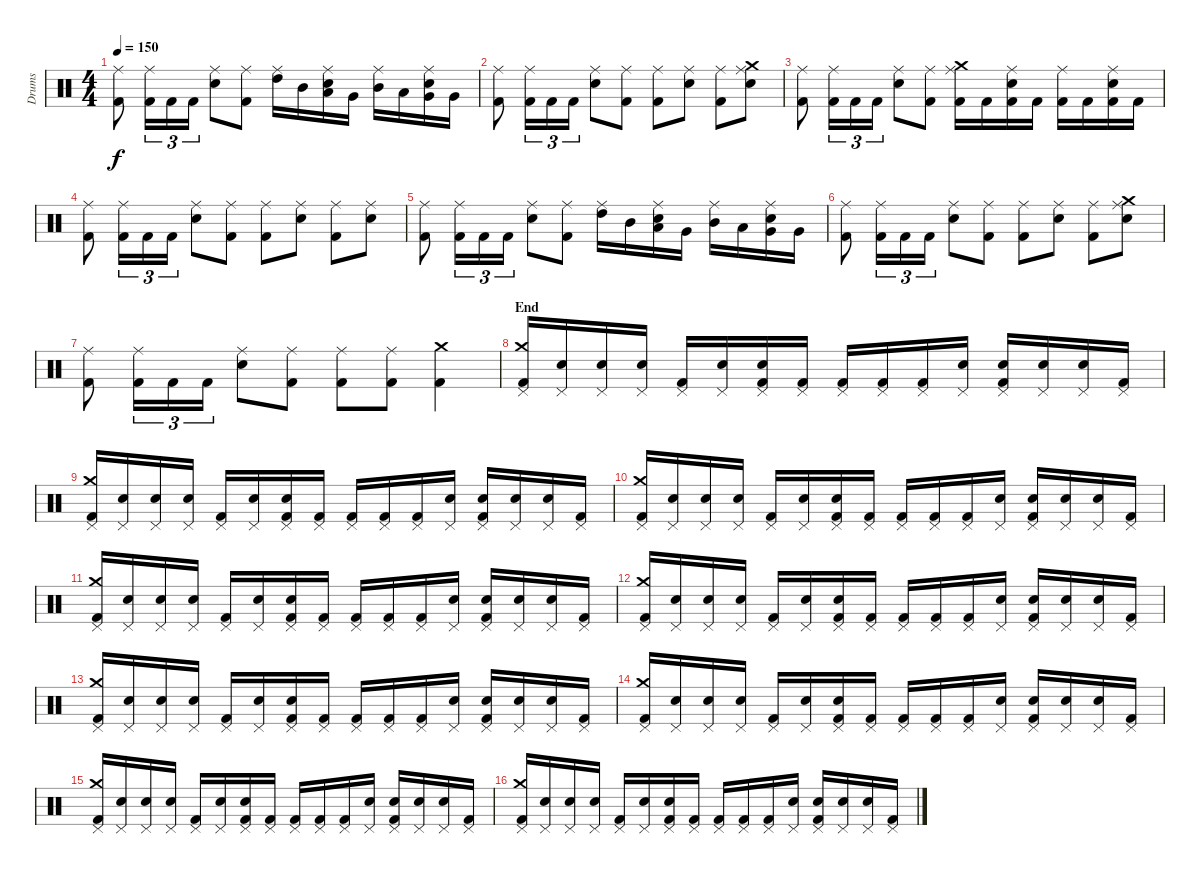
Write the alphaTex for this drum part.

\track ("Drums" "Drums") {instrument percussion}
\staff {score}
\articulation defaults
\ts (4 4)
\tempo 150
\clef neutral
\ks c
("Kick (hit) 2" "Ride (middle)").8{dy f} ("Kick (hit) 2" "Ride (middle)").16{tu (3 2)} "Kick (hit) 2".16{tu (3 2)} "Kick (hit) 2".16{tu (3 2)} ("Snare (hit) 2" "Ride (middle)").8 ("Kick (hit) 2" "Ride (middle)").8 ("High Tom (hit)" "Ride (middle)").16 "Mid Tom (hit)".16 ("Low Tom (hit)" "Snare (hit) 2" "Ride (middle)").16 "Very Low Tom (hit)".16 ("Mid Tom (hit)" "Ride (middle)").16 "Low Tom (hit)".16 ("Very Low Tom (hit)" "Snare (hit) 2" "Ride (middle)").16 "Very Low Tom (hit)".16 |
("Kick (hit) 2" "Ride (middle)").8 ("Kick (hit) 2" "Ride (middle)").16{tu (3 2)} "Kick (hit) 2".16{tu (3 2)} "Kick (hit) 2".16{tu (3 2)} ("Snare (hit) 2" "Ride (middle)").8 ("Kick (hit) 2" "Ride (middle)").8 ("Kick (hit) 2" "Ride (middle)").8 ("Snare (hit) 2" "Ride (middle)").8 ("Kick (hit) 2" "Ride (middle)").8 ("Crash medium (hit)" "Snare (hit) 2" "Ride (middle)").8 |
("Kick (hit) 2" "Ride (middle)").8 ("Kick (hit) 2" "Ride (middle)").16{tu (3 2)} "Kick (hit) 2".16{tu (3 2)} "Kick (hit) 2".16{tu (3 2)} ("Snare (hit) 2" "Ride (middle)").8 ("Kick (hit) 2" "Ride (middle)").8 ("Kick (hit) 2" "Crash medium (hit)" "Ride (middle)").16 "Kick (hit) 2".16 ("Kick (hit) 2" "Snare (hit) 2" "Ride (middle)").16 "Kick (hit) 2".16 ("Kick (hit) 2" "Ride (middle)").16 "Kick (hit) 2".16 ("Kick (hit) 2" "Snare (hit) 2" "Ride (middle)").16 "Kick (hit) 2".16 |
("Kick (hit) 2" "Ride (middle)").8 ("Kick (hit) 2" "Ride (middle)").16{tu (3 2)} "Kick (hit) 2".16{tu (3 2)} "Kick (hit) 2".16{tu (3 2)} ("Snare (hit) 2" "Ride (middle)").8 ("Kick (hit) 2" "Ride (middle)").8 ("Kick (hit) 2" "Ride (middle)").8 ("Snare (hit) 2" "Ride (middle)").8 ("Kick (hit) 2" "Ride (middle)").8 ("Snare (hit) 2" "Ride (middle)").8 |
("Kick (hit) 2" "Ride (middle)").8 ("Kick (hit) 2" "Ride (middle)").16{tu (3 2)} "Kick (hit) 2".16{tu (3 2)} "Kick (hit) 2".16{tu (3 2)} ("Snare (hit) 2" "Ride (middle)").8 ("Kick (hit) 2" "Ride (middle)").8 ("High Tom (hit)" "Ride (middle)").16 "Mid Tom (hit)".16 ("Low Tom (hit)" "Snare (hit) 2" "Ride (middle)").16 "Very Low Tom (hit)".16 ("Mid Tom (hit)" "Ride (middle)").16 "Low Tom (hit)".16 ("Very Low Tom (hit)" "Snare (hit) 2" "Ride (middle)").16 "Very Low Tom (hit)".16 |
("Kick (hit) 2" "Ride (middle)").8 ("Kick (hit) 2" "Ride (middle)").16{tu (3 2)} "Kick (hit) 2".16{tu (3 2)} "Kick (hit) 2".16{tu (3 2)} ("Snare (hit) 2" "Ride (middle)").8 ("Kick (hit) 2" "Ride (middle)").8 ("Kick (hit) 2" "Ride (middle)").8 ("Snare (hit) 2" "Ride (middle)").8 ("Kick (hit) 2" "Ride (middle)").8 ("Crash medium (hit)" "Snare (hit) 2" "Ride (middle)").8 |
("Kick (hit) 2" "Ride (middle)").8 ("Kick (hit) 2" "Ride (middle)").16{tu (3 2)} "Kick (hit) 2".16{tu (3 2)} "Kick (hit) 2".16{tu (3 2)} ("Snare (hit) 2" "Ride (middle)").8 ("Kick (hit) 2" "Ride (middle)").8 ("Kick (hit) 2" "Ride (middle)").8 ("Kick (hit) 2" "Ride (middle)").8 ("Kick (hit) 2" "Crash medium (hit)").4 |
\section ("" "End")
("Kick (hit) 2" "Pedal Hi-Hat (hit)" "Crash medium (hit)").16 ("Snare (hit)" "Pedal Hi-Hat (hit)").16 ("Snare (hit)" "Pedal Hi-Hat (hit)").16 ("Snare (hit)" "Pedal Hi-Hat (hit)").16 ("Kick (hit) 2" "Pedal Hi-Hat (hit)").16 ("Snare (hit)" "Pedal Hi-Hat (hit)").16 ("Kick (hit) 2" "Pedal Hi-Hat (hit)" "Snare (hit) 2").16 ("Kick (hit) 2" "Pedal Hi-Hat (hit)").16 ("Kick (hit) 2" "Pedal Hi-Hat (hit)").16 ("Kick (hit) 2" "Pedal Hi-Hat (hit)").16 ("Kick (hit) 2" "Pedal Hi-Hat (hit)").16 ("Snare (hit)" "Pedal Hi-Hat (hit)").16 ("Kick (hit) 2" "Pedal Hi-Hat (hit)" "Snare (hit) 2").16 ("Snare (hit)" "Pedal Hi-Hat (hit)").16 ("Snare (hit)" "Pedal Hi-Hat (hit)").16 ("Kick (hit) 2" "Pedal Hi-Hat (hit)").16 |
("Kick (hit) 2" "Pedal Hi-Hat (hit)" "Crash medium (hit)").16 ("Snare (hit)" "Pedal Hi-Hat (hit)").16 ("Snare (hit)" "Pedal Hi-Hat (hit)").16 ("Snare (hit)" "Pedal Hi-Hat (hit)").16 ("Kick (hit) 2" "Pedal Hi-Hat (hit)").16 ("Snare (hit)" "Pedal Hi-Hat (hit)").16 ("Kick (hit) 2" "Pedal Hi-Hat (hit)" "Snare (hit) 2").16 ("Kick (hit) 2" "Pedal Hi-Hat (hit)").16 ("Kick (hit) 2" "Pedal Hi-Hat (hit)").16 ("Kick (hit) 2" "Pedal Hi-Hat (hit)").16 ("Kick (hit) 2" "Pedal Hi-Hat (hit)").16 ("Snare (hit)" "Pedal Hi-Hat (hit)").16 ("Kick (hit) 2" "Pedal Hi-Hat (hit)" "Snare (hit) 2").16 ("Snare (hit)" "Pedal Hi-Hat (hit)").16 ("Snare (hit)" "Pedal Hi-Hat (hit)").16 ("Kick (hit) 2" "Pedal Hi-Hat (hit)").16 |
("Kick (hit) 2" "Pedal Hi-Hat (hit)" "Crash medium (hit)").16 ("Snare (hit)" "Pedal Hi-Hat (hit)").16 ("Snare (hit)" "Pedal Hi-Hat (hit)").16 ("Snare (hit)" "Pedal Hi-Hat (hit)").16 ("Kick (hit) 2" "Pedal Hi-Hat (hit)").16 ("Snare (hit)" "Pedal Hi-Hat (hit)").16 ("Kick (hit) 2" "Pedal Hi-Hat (hit)" "Snare (hit) 2").16 ("Kick (hit) 2" "Pedal Hi-Hat (hit)").16 ("Kick (hit) 2" "Pedal Hi-Hat (hit)").16 ("Kick (hit) 2" "Pedal Hi-Hat (hit)").16 ("Kick (hit) 2" "Pedal Hi-Hat (hit)").16 ("Snare (hit)" "Pedal Hi-Hat (hit)").16 ("Kick (hit) 2" "Pedal Hi-Hat (hit)" "Snare (hit) 2").16 ("Snare (hit)" "Pedal Hi-Hat (hit)").16 ("Snare (hit)" "Pedal Hi-Hat (hit)").16 ("Kick (hit) 2" "Pedal Hi-Hat (hit)").16 |
("Kick (hit) 2" "Pedal Hi-Hat (hit)" "Crash medium (hit)").16 ("Snare (hit)" "Pedal Hi-Hat (hit)").16 ("Snare (hit)" "Pedal Hi-Hat (hit)").16 ("Snare (hit)" "Pedal Hi-Hat (hit)").16 ("Kick (hit) 2" "Pedal Hi-Hat (hit)").16 ("Snare (hit)" "Pedal Hi-Hat (hit)").16 ("Kick (hit) 2" "Pedal Hi-Hat (hit)" "Snare (hit) 2").16 ("Kick (hit) 2" "Pedal Hi-Hat (hit)").16 ("Kick (hit) 2" "Pedal Hi-Hat (hit)").16 ("Kick (hit) 2" "Pedal Hi-Hat (hit)").16 ("Kick (hit) 2" "Pedal Hi-Hat (hit)").16 ("Snare (hit)" "Pedal Hi-Hat (hit)").16 ("Kick (hit) 2" "Pedal Hi-Hat (hit)" "Snare (hit) 2").16 ("Snare (hit)" "Pedal Hi-Hat (hit)").16 ("Snare (hit)" "Pedal Hi-Hat (hit)").16 ("Kick (hit) 2" "Pedal Hi-Hat (hit)").16 |
("Kick (hit) 2" "Pedal Hi-Hat (hit)" "Crash medium (hit)").16 ("Snare (hit)" "Pedal Hi-Hat (hit)").16 ("Snare (hit)" "Pedal Hi-Hat (hit)").16 ("Snare (hit)" "Pedal Hi-Hat (hit)").16 ("Kick (hit) 2" "Pedal Hi-Hat (hit)").16 ("Snare (hit)" "Pedal Hi-Hat (hit)").16 ("Kick (hit) 2" "Pedal Hi-Hat (hit)" "Snare (hit) 2").16 ("Kick (hit) 2" "Pedal Hi-Hat (hit)").16 ("Kick (hit) 2" "Pedal Hi-Hat (hit)").16 ("Kick (hit) 2" "Pedal Hi-Hat (hit)").16 ("Kick (hit) 2" "Pedal Hi-Hat (hit)").16 ("Snare (hit)" "Pedal Hi-Hat (hit)").16 ("Kick (hit) 2" "Pedal Hi-Hat (hit)" "Snare (hit) 2").16 ("Snare (hit)" "Pedal Hi-Hat (hit)").16 ("Snare (hit)" "Pedal Hi-Hat (hit)").16 ("Kick (hit) 2" "Pedal Hi-Hat (hit)").16 |
("Kick (hit) 2" "Pedal Hi-Hat (hit)" "Crash medium (hit)").16 ("Snare (hit)" "Pedal Hi-Hat (hit)").16 ("Snare (hit)" "Pedal Hi-Hat (hit)").16 ("Snare (hit)" "Pedal Hi-Hat (hit)").16 ("Kick (hit) 2" "Pedal Hi-Hat (hit)").16 ("Snare (hit)" "Pedal Hi-Hat (hit)").16 ("Kick (hit) 2" "Pedal Hi-Hat (hit)" "Snare (hit) 2").16 ("Kick (hit) 2" "Pedal Hi-Hat (hit)").16 ("Kick (hit) 2" "Pedal Hi-Hat (hit)").16 ("Kick (hit) 2" "Pedal Hi-Hat (hit)").16 ("Kick (hit) 2" "Pedal Hi-Hat (hit)").16 ("Snare (hit)" "Pedal Hi-Hat (hit)").16 ("Kick (hit) 2" "Pedal Hi-Hat (hit)" "Snare (hit) 2").16 ("Snare (hit)" "Pedal Hi-Hat (hit)").16 ("Snare (hit)" "Pedal Hi-Hat (hit)").16 ("Kick (hit) 2" "Pedal Hi-Hat (hit)").16 |
("Kick (hit) 2" "Pedal Hi-Hat (hit)" "Crash medium (hit)").16 ("Snare (hit)" "Pedal Hi-Hat (hit)").16 ("Snare (hit)" "Pedal Hi-Hat (hit)").16 ("Snare (hit)" "Pedal Hi-Hat (hit)").16 ("Kick (hit) 2" "Pedal Hi-Hat (hit)").16 ("Snare (hit)" "Pedal Hi-Hat (hit)").16 ("Kick (hit) 2" "Pedal Hi-Hat (hit)" "Snare (hit) 2").16 ("Kick (hit) 2" "Pedal Hi-Hat (hit)").16 ("Kick (hit) 2" "Pedal Hi-Hat (hit)").16 ("Kick (hit) 2" "Pedal Hi-Hat (hit)").16 ("Kick (hit) 2" "Pedal Hi-Hat (hit)").16 ("Snare (hit)" "Pedal Hi-Hat (hit)").16 ("Kick (hit) 2" "Pedal Hi-Hat (hit)" "Snare (hit) 2").16 ("Snare (hit)" "Pedal Hi-Hat (hit)").16 ("Snare (hit)" "Pedal Hi-Hat (hit)").16 ("Kick (hit) 2" "Pedal Hi-Hat (hit)").16 |
("Kick (hit) 2" "Pedal Hi-Hat (hit)" "Crash medium (hit)").16 ("Snare (hit)" "Pedal Hi-Hat (hit)").16 ("Snare (hit)" "Pedal Hi-Hat (hit)").16 ("Snare (hit)" "Pedal Hi-Hat (hit)").16 ("Kick (hit) 2" "Pedal Hi-Hat (hit)").16 ("Snare (hit)" "Pedal Hi-Hat (hit)").16 ("Kick (hit) 2" "Pedal Hi-Hat (hit)" "Snare (hit) 2").16 ("Kick (hit) 2" "Pedal Hi-Hat (hit)").16 ("Kick (hit) 2" "Pedal Hi-Hat (hit)").16 ("Kick (hit) 2" "Pedal Hi-Hat (hit)").16 ("Kick (hit) 2" "Pedal Hi-Hat (hit)").16 ("Snare (hit)" "Pedal Hi-Hat (hit)").16 ("Kick (hit) 2" "Pedal Hi-Hat (hit)" "Snare (hit) 2").16 ("Snare (hit)" "Pedal Hi-Hat (hit)").16 ("Snare (hit)" "Pedal Hi-Hat (hit)").16 ("Kick (hit) 2" "Pedal Hi-Hat (hit)").16 |
("Kick (hit) 2" "Pedal Hi-Hat (hit)" "Crash medium (hit)").16 ("Snare (hit)" "Pedal Hi-Hat (hit)").16 ("Snare (hit)" "Pedal Hi-Hat (hit)").16 ("Snare (hit)" "Pedal Hi-Hat (hit)").16 ("Kick (hit) 2" "Pedal Hi-Hat (hit)").16 ("Snare (hit)" "Pedal Hi-Hat (hit)").16 ("Kick (hit) 2" "Pedal Hi-Hat (hit)" "Snare (hit) 2").16 ("Kick (hit) 2" "Pedal Hi-Hat (hit)").16 ("Kick (hit) 2" "Pedal Hi-Hat (hit)").16 ("Kick (hit) 2" "Pedal Hi-Hat (hit)").16 ("Kick (hit) 2" "Pedal Hi-Hat (hit)").16 ("Snare (hit)" "Pedal Hi-Hat (hit)").16 ("Kick (hit) 2" "Pedal Hi-Hat (hit)" "Snare (hit) 2").16 ("Snare (hit)" "Pedal Hi-Hat (hit)").16 ("Snare (hit)" "Pedal Hi-Hat (hit)").16 ("Kick (hit) 2" "Pedal Hi-Hat (hit)").16
